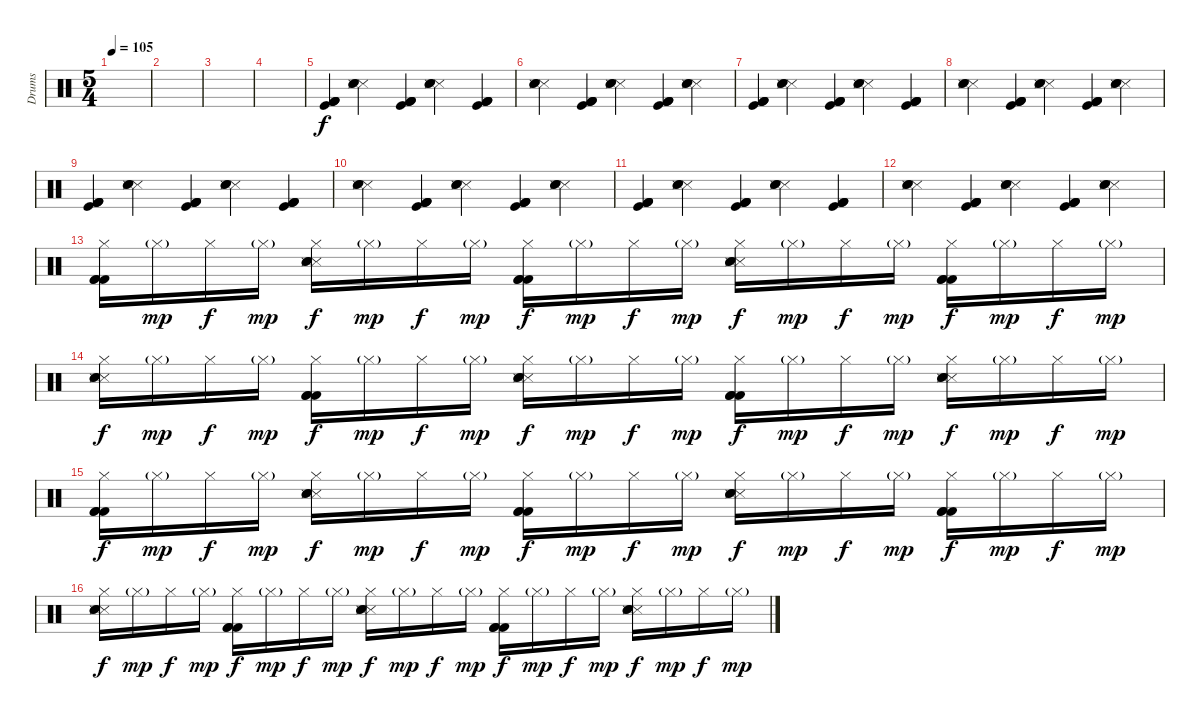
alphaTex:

\track ("Drums" "Drums") {instrument percussion}
\staff {score}
\articulation defaults
\ts (5 4)
\tempo 105
\clef neutral
\ks c
|
|
|
|
("Kick (hit)" "Kick (hit) 2" "Kick (hit) 2" "Kick (hit) 2").4 ("Snare (side stick) 3" "Electric Snare (hit)" "Snare (side stick) 3" "Snare (hit) 2").4 ("Kick (hit)" "Kick (hit) 2" "Kick (hit) 2" "Kick (hit) 2").4 ("Snare (side stick) 3" "Electric Snare (hit)" "Snare (side stick) 3" "Snare (hit) 2").4 ("Kick (hit)" "Kick (hit) 2" "Kick (hit) 2" "Kick (hit) 2").4 |
("Snare (side stick) 3" "Electric Snare (hit)" "Snare (side stick) 3" "Snare (hit) 2").4 ("Kick (hit)" "Kick (hit) 2" "Kick (hit) 2" "Kick (hit) 2").4 ("Snare (side stick) 3" "Electric Snare (hit)" "Snare (side stick) 3" "Snare (hit) 2").4 ("Kick (hit)" "Kick (hit) 2" "Kick (hit) 2" "Kick (hit) 2").4 ("Snare (side stick) 3" "Electric Snare (hit)" "Snare (side stick) 3" "Snare (hit) 2").4 |
("Kick (hit)" "Kick (hit) 2" "Kick (hit) 2" "Kick (hit) 2").4 ("Snare (side stick) 3" "Electric Snare (hit)" "Snare (side stick) 3" "Snare (hit) 2").4 ("Kick (hit)" "Kick (hit) 2" "Kick (hit) 2" "Kick (hit) 2").4 ("Snare (side stick) 3" "Electric Snare (hit)" "Snare (side stick) 3" "Snare (hit) 2").4 ("Kick (hit)" "Kick (hit) 2" "Kick (hit) 2" "Kick (hit) 2").4 |
("Snare (side stick) 3" "Electric Snare (hit)" "Snare (side stick) 3" "Snare (hit) 2").4 ("Kick (hit)" "Kick (hit) 2" "Kick (hit) 2" "Kick (hit) 2").4 ("Snare (side stick) 3" "Electric Snare (hit)" "Snare (side stick) 3" "Snare (hit) 2").4 ("Kick (hit)" "Kick (hit) 2" "Kick (hit) 2" "Kick (hit) 2").4 ("Snare (side stick) 3" "Electric Snare (hit)" "Snare (side stick) 3" "Snare (hit) 2").4 |
("Kick (hit)" "Kick (hit) 2" "Kick (hit) 2" "Kick (hit) 2").4 ("Snare (side stick) 3" "Electric Snare (hit)" "Snare (side stick) 3" "Snare (hit) 2").4 ("Kick (hit)" "Kick (hit) 2" "Kick (hit) 2" "Kick (hit) 2").4 ("Snare (side stick) 3" "Electric Snare (hit)" "Snare (side stick) 3" "Snare (hit) 2").4 ("Kick (hit)" "Kick (hit) 2" "Kick (hit) 2" "Kick (hit) 2").4 |
("Snare (side stick) 3" "Electric Snare (hit)" "Snare (side stick) 3" "Snare (hit) 2").4 ("Kick (hit)" "Kick (hit) 2" "Kick (hit) 2" "Kick (hit) 2").4 ("Snare (side stick) 3" "Electric Snare (hit)" "Snare (side stick) 3" "Snare (hit) 2").4 ("Kick (hit)" "Kick (hit) 2" "Kick (hit) 2" "Kick (hit) 2").4 ("Snare (side stick) 3" "Electric Snare (hit)" "Snare (side stick) 3" "Snare (hit) 2").4 |
("Kick (hit)" "Kick (hit) 2" "Kick (hit) 2" "Kick (hit) 2").4 ("Snare (side stick) 3" "Electric Snare (hit)" "Snare (side stick) 3" "Snare (hit) 2").4 ("Kick (hit)" "Kick (hit) 2" "Kick (hit) 2" "Kick (hit) 2").4 ("Snare (side stick) 3" "Electric Snare (hit)" "Snare (side stick) 3" "Snare (hit) 2").4 ("Kick (hit)" "Kick (hit) 2" "Kick (hit) 2" "Kick (hit) 2").4 |
("Snare (side stick) 3" "Electric Snare (hit)" "Snare (side stick) 3" "Snare (hit) 2").4 ("Kick (hit)" "Kick (hit) 2" "Kick (hit) 2" "Kick (hit) 2").4 ("Snare (side stick) 3" "Electric Snare (hit)" "Snare (side stick) 3" "Snare (hit) 2").4 ("Kick (hit)" "Kick (hit) 2" "Kick (hit) 2" "Kick (hit) 2").4 ("Snare (side stick) 3" "Electric Snare (hit)" "Snare (side stick) 3" "Snare (hit) 2").4 |
("Hi-Hat (closed)" "Kick (hit) 2" "Kick (hit) 2" "Kick (hit) 2").16 "Hi-Hat (closed)"{g}.16{dy mp} "Hi-Hat (closed)".16{dy f} "Hi-Hat (closed)"{g}.16{dy mp} ("Hi-Hat (closed)" "Snare (side stick) 3" "Snare (side stick) 3" "Electric Snare (hit)" "Snare (hit) 2").16{dy f} "Hi-Hat (closed)"{g}.16{dy mp} "Hi-Hat (closed)".16{dy f} "Hi-Hat (closed)"{g}.16{dy mp} ("Hi-Hat (closed)" "Kick (hit) 2" "Kick (hit) 2" "Kick (hit) 2").16{dy f} "Hi-Hat (closed)"{g}.16{dy mp} "Hi-Hat (closed)".16{dy f} "Hi-Hat (closed)"{g}.16{dy mp} ("Hi-Hat (closed)" "Snare (side stick) 3" "Snare (side stick) 3" "Electric Snare (hit)" "Snare (hit) 2").16{dy f} "Hi-Hat (closed)"{g}.16{dy mp} "Hi-Hat (closed)".16{dy f} "Hi-Hat (closed)"{g}.16{dy mp} ("Hi-Hat (closed)" "Kick (hit) 2" "Kick (hit) 2" "Kick (hit) 2").16{dy f} "Hi-Hat (closed)"{g}.16{dy mp} "Hi-Hat (closed)".16{dy f} "Hi-Hat (closed)"{g}.16{dy mp} |
("Hi-Hat (closed)" "Snare (side stick) 3" "Snare (side stick) 3" "Snare (hit) 2" "Electric Snare (hit)").16{dy f} "Hi-Hat (closed)"{g}.16{dy mp} "Hi-Hat (closed)".16{dy f} "Hi-Hat (closed)"{g}.16{dy mp} ("Hi-Hat (closed)" "Kick (hit) 2" "Kick (hit) 2" "Kick (hit) 2").16{dy f} "Hi-Hat (closed)"{g}.16{dy mp} "Hi-Hat (closed)".16{dy f} "Hi-Hat (closed)"{g}.16{dy mp} ("Hi-Hat (closed)" "Snare (side stick) 3" "Snare (side stick) 3" "Snare (hit) 2" "Electric Snare (hit)").16{dy f} "Hi-Hat (closed)"{g}.16{dy mp} "Hi-Hat (closed)".16{dy f} "Hi-Hat (closed)"{g}.16{dy mp} ("Hi-Hat (closed)" "Kick (hit) 2" "Kick (hit) 2" "Kick (hit) 2").16{dy f} "Hi-Hat (closed)"{g}.16{dy mp} "Hi-Hat (closed)".16{dy f} "Hi-Hat (closed)"{g}.16{dy mp} ("Hi-Hat (closed)" "Snare (side stick) 3" "Snare (side stick) 3" "Snare (hit) 2" "Electric Snare (hit)").16{dy f} "Hi-Hat (closed)"{g}.16{dy mp} "Hi-Hat (closed)".16{dy f} "Hi-Hat (closed)"{g}.16{dy mp} |
("Hi-Hat (closed)" "Kick (hit) 2" "Kick (hit) 2" "Kick (hit) 2").16{dy f} "Hi-Hat (closed)"{g}.16{dy mp} "Hi-Hat (closed)".16{dy f} "Hi-Hat (closed)"{g}.16{dy mp} ("Hi-Hat (closed)" "Snare (side stick) 3" "Snare (side stick) 3" "Electric Snare (hit)" "Snare (hit) 2").16{dy f} "Hi-Hat (closed)"{g}.16{dy mp} "Hi-Hat (closed)".16{dy f} "Hi-Hat (closed)"{g}.16{dy mp} ("Hi-Hat (closed)" "Kick (hit) 2" "Kick (hit) 2" "Kick (hit) 2").16{dy f} "Hi-Hat (closed)"{g}.16{dy mp} "Hi-Hat (closed)".16{dy f} "Hi-Hat (closed)"{g}.16{dy mp} ("Hi-Hat (closed)" "Snare (side stick) 3" "Snare (side stick) 3" "Electric Snare (hit)" "Snare (hit) 2").16{dy f} "Hi-Hat (closed)"{g}.16{dy mp} "Hi-Hat (closed)".16{dy f} "Hi-Hat (closed)"{g}.16{dy mp} ("Hi-Hat (closed)" "Kick (hit) 2" "Kick (hit) 2" "Kick (hit) 2").16{dy f} "Hi-Hat (closed)"{g}.16{dy mp} "Hi-Hat (closed)".16{dy f} "Hi-Hat (closed)"{g}.16{dy mp} |
("Hi-Hat (closed)" "Snare (side stick) 3" "Snare (side stick) 3" "Snare (hit) 2" "Electric Snare (hit)").16{dy f} "Hi-Hat (closed)"{g}.16{dy mp} "Hi-Hat (closed)".16{dy f} "Hi-Hat (closed)"{g}.16{dy mp} ("Hi-Hat (closed)" "Kick (hit) 2" "Kick (hit) 2" "Kick (hit) 2").16{dy f} "Hi-Hat (closed)"{g}.16{dy mp} "Hi-Hat (closed)".16{dy f} "Hi-Hat (closed)"{g}.16{dy mp} ("Hi-Hat (closed)" "Snare (side stick) 3" "Snare (side stick) 3" "Snare (hit) 2" "Electric Snare (hit)").16{dy f} "Hi-Hat (closed)"{g}.16{dy mp} "Hi-Hat (closed)".16{dy f} "Hi-Hat (closed)"{g}.16{dy mp} ("Hi-Hat (closed)" "Kick (hit) 2" "Kick (hit) 2" "Kick (hit) 2").16{dy f} "Hi-Hat (closed)"{g}.16{dy mp} "Hi-Hat (closed)".16{dy f} "Hi-Hat (closed)"{g}.16{dy mp} ("Hi-Hat (closed)" "Snare (side stick) 3" "Snare (side stick) 3" "Snare (hit) 2" "Electric Snare (hit)").16{dy f} "Hi-Hat (closed)"{g}.16{dy mp} "Hi-Hat (closed)".16{dy f} "Hi-Hat (closed)"{g}.16{dy mp}
